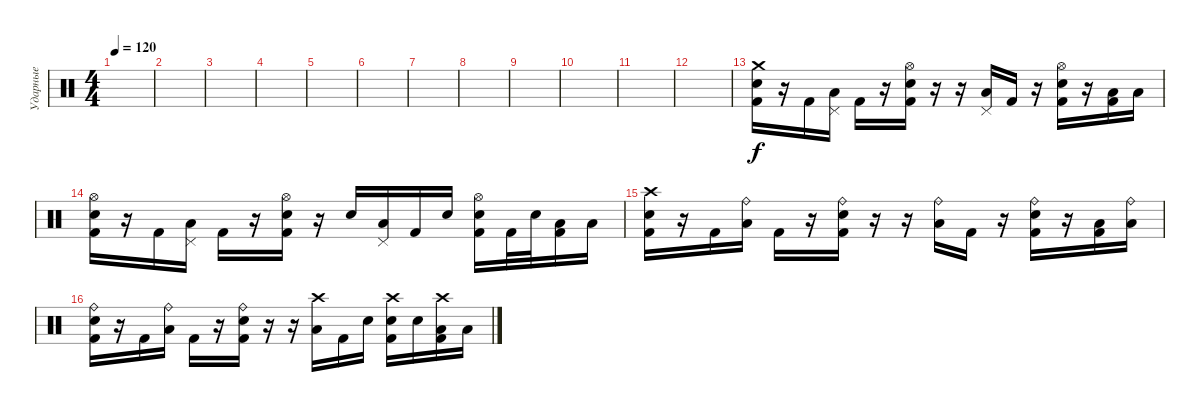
\track ("Ударные" "Ударные") {instrument percussion}
\staff {score}
\articulation defaults
\ts (4 4)
\tempo 120
\clef neutral
\ks c
|
|
|
|
|
|
|
|
|
|
|
|
("Crash medium (hit)" "Kick (hit) 2" "Electric Snare (hit)").16 r.16 "Kick (hit) 2".16 ("Pedal Hi-Hat (hit)" "Low Tom (hit)").16 "Kick (hit) 2".16 r.16 ("Hi-Hat (open)" "Kick (hit) 2" "Electric Snare (hit)").16 r.16 r.16 ("Pedal Hi-Hat (hit)" "Low Tom (hit)").16 "Kick (hit) 2".16 r.16 ("Hi-Hat (open)" "Kick (hit) 2" "Electric Snare (hit)").16 r.16 ("Kick (hit) 2" "Low Tom (hit)").16 "Low Tom (hit)".16 |
("Hi-Hat (open)" "Kick (hit) 2" "Electric Snare (hit)").16 r.16 "Kick (hit) 2".16 ("Pedal Hi-Hat (hit)" "Low Tom (hit)").16 "Kick (hit) 2".16 r.16 ("Hi-Hat (open)" "Kick (hit) 2" "Electric Snare (hit)").16 r.16 "Electric Snare (hit)".16 ("Pedal Hi-Hat (hit)" "Low Tom (hit)").16 "Kick (hit) 2".16 "Electric Snare (hit)".16 ("Hi-Hat (open)" "Kick (hit) 2" "Electric Snare (hit)").16 "Kick (hit) 2".32 "Electric Snare (hit)".32 ("Kick (hit) 2" "Low Tom (hit)").16 "Low Tom (hit)".16 |
("Crash high (hit)" "Kick (hit) 2" "Electric Snare (hit)").16 r.16 "Kick (hit) 2".16 ("Ride (bell)" "Low Tom (hit)").16 "Kick (hit) 2".16 r.16 ("Ride (bell)" "Kick (hit) 2" "Electric Snare (hit)").16 r.16 r.16 ("Ride (bell)" "Low Tom (hit)").16 "Kick (hit) 2".16 r.16 ("Ride (bell)" "Kick (hit) 2" "Electric Snare (hit)").16 r.16 ("Kick (hit) 2" "Low Tom (hit)").16 ("Ride (bell)" "Low Tom (hit)").16 |
("Ride (bell)" "Kick (hit) 2" "Electric Snare (hit)").16 r.16 "Kick (hit) 2".16 ("Ride (bell)" "Low Tom (hit)").16 "Kick (hit) 2".16 r.16 ("Ride (bell)" "Kick (hit) 2" "Electric Snare (hit)").16 r.16 r.16 ("Crash high (hit)" "Low Tom (hit)").16 "Kick (hit) 2".16 "Electric Snare (hit)".16 ("Crash high (hit)" "Kick (hit) 2" "Electric Snare (hit)").16 "Electric Snare (hit)".16 ("Crash high (hit)" "Kick (hit) 2" "Low Tom (hit)").16 "Low Tom (hit)".16
